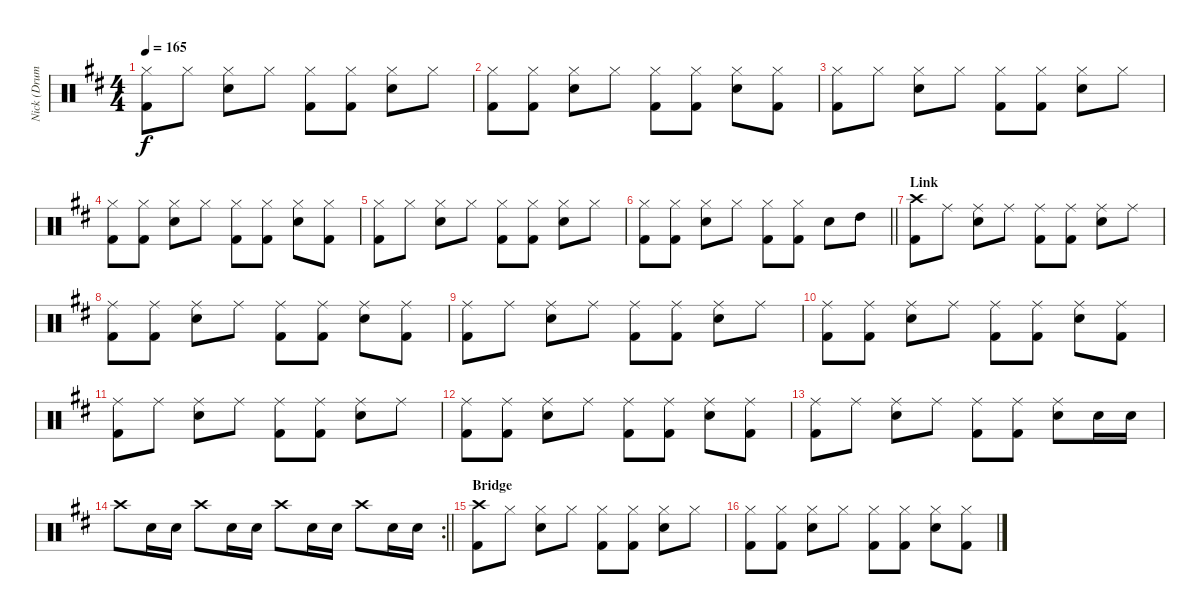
\track ("Nick (Drums)" "Nick (Drum") {instrument percussion}
\staff {score}
\articulation defaults
\ts (4 4)
\tempo 165
\clef neutral
\ks d
("Hi-Hat (closed)" "Kick (hit) 2").8{dy f} "Hi-Hat (closed)".8 ("Hi-Hat (closed)" "Snare (hit) 2").8 "Hi-Hat (closed)".8 ("Hi-Hat (closed)" "Kick (hit) 2").8 ("Hi-Hat (closed)" "Kick (hit) 2").8 ("Hi-Hat (closed)" "Snare (hit) 2").8 "Hi-Hat (closed)".8 |
("Kick (hit) 2" "Hi-Hat (closed)").8 ("Hi-Hat (closed)" "Kick (hit) 2").8 ("Hi-Hat (closed)" "Snare (hit) 2").8 "Hi-Hat (closed)".8 ("Hi-Hat (closed)" "Kick (hit) 2").8 ("Hi-Hat (closed)" "Kick (hit) 2").8 ("Hi-Hat (closed)" "Snare (hit) 2").8 ("Hi-Hat (closed)" "Kick (hit) 2").8 |
("Hi-Hat (closed)" "Kick (hit) 2").8 "Hi-Hat (closed)".8 ("Hi-Hat (closed)" "Snare (hit) 2").8 "Hi-Hat (closed)".8 ("Hi-Hat (closed)" "Kick (hit) 2").8 ("Hi-Hat (closed)" "Kick (hit) 2").8 ("Hi-Hat (closed)" "Snare (hit) 2").8 "Hi-Hat (closed)".8 |
("Kick (hit) 2" "Hi-Hat (closed)").8 ("Hi-Hat (closed)" "Kick (hit) 2").8 ("Hi-Hat (closed)" "Snare (hit) 2").8 "Hi-Hat (closed)".8 ("Hi-Hat (closed)" "Kick (hit) 2").8 ("Hi-Hat (closed)" "Kick (hit) 2").8 ("Hi-Hat (closed)" "Snare (hit) 2").8 ("Hi-Hat (closed)" "Kick (hit) 2").8 |
("Hi-Hat (closed)" "Kick (hit) 2").8 "Hi-Hat (closed)".8 ("Hi-Hat (closed)" "Snare (hit) 2").8 "Hi-Hat (closed)".8 ("Hi-Hat (closed)" "Kick (hit) 2").8 ("Hi-Hat (closed)" "Kick (hit) 2").8 ("Hi-Hat (closed)" "Snare (hit) 2").8 "Hi-Hat (closed)".8 |
\barLineRight lightlight
("Kick (hit) 2" "Hi-Hat (closed)").8 ("Hi-Hat (closed)" "Kick (hit) 2").8 ("Hi-Hat (closed)" "Snare (hit) 2").8 "Hi-Hat (closed)".8 ("Hi-Hat (closed)" "Kick (hit) 2").8 ("Hi-Hat (closed)" "Kick (hit) 2").8 "Snare (hit) 2".8 "High Tom (hit)".8 |
\section ("" "Link")
("Kick (hit) 2" "Crash high (hit)").8 "Ride (middle)".8 ("Ride (middle)" "Snare (hit) 2").8 "Ride (middle)".8 ("Ride (middle)" "Kick (hit) 2").8 ("Ride (middle)" "Kick (hit) 2").8 ("Ride (middle)" "Snare (hit) 2").8 "Ride (middle)".8 |
("Kick (hit) 2" "Ride (middle)").8 ("Ride (middle)" "Kick (hit) 2").8 ("Ride (middle)" "Snare (hit) 2").8 "Ride (middle)".8 ("Ride (middle)" "Kick (hit) 2").8 ("Ride (middle)" "Kick (hit) 2").8 ("Ride (middle)" "Snare (hit) 2").8 ("Ride (middle)" "Kick (hit) 2").8 |
("Kick (hit) 2" "Ride (middle)").8 "Ride (middle)".8 ("Ride (middle)" "Snare (hit) 2").8 "Ride (middle)".8 ("Ride (middle)" "Kick (hit) 2").8 ("Ride (middle)" "Kick (hit) 2").8 ("Ride (middle)" "Snare (hit) 2").8 "Ride (middle)".8 |
("Kick (hit) 2" "Ride (middle)").8 ("Ride (middle)" "Kick (hit) 2").8 ("Ride (middle)" "Snare (hit) 2").8 "Ride (middle)".8 ("Ride (middle)" "Kick (hit) 2").8 ("Ride (middle)" "Kick (hit) 2").8 ("Ride (middle)" "Snare (hit) 2").8 ("Ride (middle)" "Kick (hit) 2").8 |
("Kick (hit) 2" "Ride (middle)").8 "Ride (middle)".8 ("Ride (middle)" "Snare (hit) 2").8 "Ride (middle)".8 ("Ride (middle)" "Kick (hit) 2").8 ("Ride (middle)" "Kick (hit) 2").8 ("Ride (middle)" "Snare (hit) 2").8 "Ride (middle)".8 |
("Kick (hit) 2" "Ride (middle)").8 ("Ride (middle)" "Kick (hit) 2").8 ("Ride (middle)" "Snare (hit) 2").8 "Ride (middle)".8 ("Ride (middle)" "Kick (hit) 2").8 ("Ride (middle)" "Kick (hit) 2").8 ("Ride (middle)" "Snare (hit) 2").8 ("Ride (middle)" "Kick (hit) 2").8 |
("Kick (hit) 2" "Ride (middle)").8 "Ride (middle)".8 ("Ride (middle)" "Snare (hit) 2").8 "Ride (middle)".8 ("Ride (middle)" "Kick (hit) 2").8 ("Ride (middle)" "Kick (hit) 2").8 ("Ride (middle)" "Snare (hit) 2").8 "Snare (hit) 2".16 "Snare (hit) 2".16 |
\rc 2
\barLineRight lightlight "Crash high (hit)".8 "Snare (hit) 2".16 "Snare (hit) 2".16 "Crash high (hit)".8 "Snare (hit) 2".16 "Snare (hit) 2".16 "Crash high (hit)".8 "Snare (hit) 2".16 "Snare (hit) 2".16 "Crash high (hit)".8 "Snare (hit) 2".16 "Snare (hit) 2".16
|
\section ("" "Bridge")
("Crash high (hit)" "Kick (hit) 2").8 "Hi-Hat (closed)".8 ("Hi-Hat (closed)" "Snare (hit) 2").8 "Hi-Hat (closed)".8 ("Hi-Hat (closed)" "Kick (hit) 2").8 ("Hi-Hat (closed)" "Kick (hit) 2").8 ("Hi-Hat (closed)" "Snare (hit) 2").8 "Hi-Hat (closed)".8 |
("Kick (hit) 2" "Hi-Hat (closed)").8 ("Hi-Hat (closed)" "Kick (hit) 2").8 ("Hi-Hat (closed)" "Snare (hit) 2").8 "Hi-Hat (closed)".8 ("Hi-Hat (closed)" "Kick (hit) 2").8 ("Hi-Hat (closed)" "Kick (hit) 2").8 ("Hi-Hat (closed)" "Snare (hit) 2").8 ("Hi-Hat (closed)" "Kick (hit) 2").8
